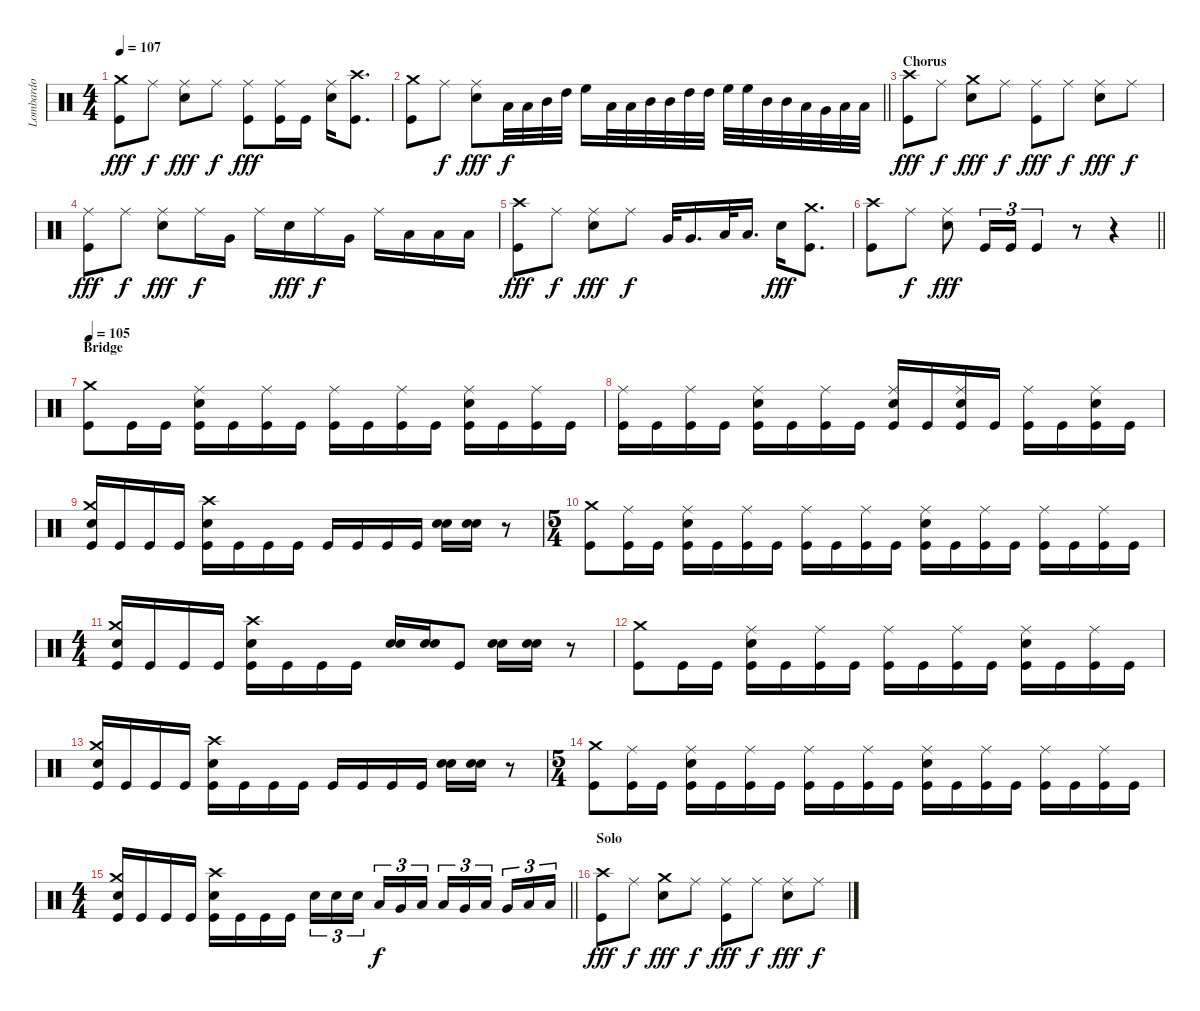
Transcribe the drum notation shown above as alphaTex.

\track ("Lombardo" "Lombardo") {instrument percussion}
\staff {score}
\articulation defaults
\ts (4 4)
\tempo 107
\clef neutral
\ks c
("Kick (hit)" "Crash medium (hit)").8{dy fff} "Ride (middle)".8{dy f} ("Electric Snare (hit)" "Ride (middle)").8{dy fff} "Ride (middle)".8{dy f} ("Kick (hit)" "Ride (middle)").8{dy fff} ("Kick (hit)" "Ride (middle)").16 "Kick (hit)".16 ("Electric Snare (hit)" "Ride (middle)").16 ("Kick (hit)" "Crash high (hit)").8{d} |
\barLineRight lightlight
("Kick (hit)" "Crash medium (hit)").8 "Ride (middle)".8{dy f} ("Electric Snare (hit)" "Ride (middle)").8{dy fff} "Low Tom (hit)".32{dy f} "Low Tom (hit)".32 "Mid Tom (hit)".32 "High Tom (hit)".32 "High Floor Tom (hit)".16 "Low Tom (hit)".32 "Low Tom (hit)".32 "Mid Tom (hit)".32 "Mid Tom (hit)".32 "High Tom (hit)".32 "High Tom (hit)".32 "High Floor Tom (hit)".32 "High Floor Tom (hit)".32 "Mid Tom (hit)".32 "Mid Tom (hit)".32 "Low Tom (hit)".32 "Very Low Tom (hit)".32 "Low Floor Tom (hit)".32 "Low Floor Tom (hit)".32 |
\section ("" "Chorus")
("Kick (hit)" "Crash high (hit)").8{dy fff} "Ride (middle)".8{dy f} ("Electric Snare (hit)" "Crash medium (hit)").8{dy fff} "Ride (middle)".8{dy f} ("Kick (hit)" "Ride (middle)").8{dy fff} "Ride (middle)".8{dy f} ("Electric Snare (hit)" "Ride (middle)").8{dy fff} "Ride (middle)".8{dy f} |
("Kick (hit)" "Ride (middle)").8{dy fff} "Ride (middle)".8{dy f} ("Electric Snare (hit)" "Ride (middle)").8{dy fff} "Ride (middle)".16{dy f} "Very Low Tom (hit)".16 "Ride (middle)".16 "Electric Snare (hit)".16{dy fff} "Ride (middle)".16{dy f} "Very Low Tom (hit)".16 "Ride (middle)".16 "Low Floor Tom (hit)".16 "Low Floor Tom (hit)".16 "Low Floor Tom (hit)".16 |
("Kick (hit)" "Crash high (hit)").8{dy fff} "Ride (middle)".8{dy f} ("Electric Snare (hit)" "Ride (middle)").8{dy fff} "Ride (middle)".8{dy f} "Very Low Tom (hit)".32 "Very Low Tom (hit)".16{d} "Low Floor Tom (hit)".32 "Low Floor Tom (hit)".16{d} "Electric Snare (hit)".16{dy fff} ("Kick (hit)" "Crash medium (hit)").8{d} |
\barLineRight lightlight
("Kick (hit)" "Crash high (hit)").8 "Ride (middle)".8{dy f} ("Electric Snare (hit)" "Ride (middle)").8{dy fff} "Kick (hit)".16{tu (3 2)} "Kick (hit)".16{tu (3 2)} "Kick (hit)".4{tu (3 2)} r.8 r.4 |
\section ("" "Bridge")
\tempo 105
("Crash medium (hit)" "Kick (hit)").8 "Kick (hit)".16 "Kick (hit)".16 ("Electric Snare (hit)" "Kick (hit)" "Ride (middle)").16 "Kick (hit)".16 ("Kick (hit)" "Ride (middle)").16 "Kick (hit)".16 ("Kick (hit)" "Ride (middle)").16 "Kick (hit)".16 ("Kick (hit)" "Ride (middle)").16 "Kick (hit)".16 ("Electric Snare (hit)" "Kick (hit)" "Ride (middle)").16 "Kick (hit)".16 ("Kick (hit)" "Ride (middle)").16 "Kick (hit)".16 |
("Kick (hit)" "Ride (middle)").16 "Kick (hit)".16 ("Kick (hit)" "Ride (middle)").16 "Kick (hit)".16 ("Electric Snare (hit)" "Kick (hit)" "Ride (middle)").16 "Kick (hit)".16 ("Kick (hit)" "Ride (middle)").16 "Kick (hit)".16 ("Electric Snare (hit)" "Kick (hit)" "Ride (middle)").16 "Kick (hit)".16 ("Electric Snare (hit)" "Kick (hit)" "Ride (middle)").16 "Kick (hit)".16 ("Kick (hit)" "Ride (middle)").16 "Kick (hit)".16 ("Electric Snare (hit)" "Kick (hit)" "Ride (middle)").16 "Kick (hit)".16 |
("Kick (hit)" "Crash medium (hit)" "Electric Snare (hit)").16 "Kick (hit)".16 "Kick (hit)".16 "Kick (hit)".16 ("Kick (hit)" "Crash high (hit)" "Electric Snare (hit)").16 "Kick (hit)".16 "Kick (hit)".16 "Kick (hit)".16 "Kick (hit)".16 "Kick (hit)".16 "Kick (hit)".16 "Kick (hit)".16 ("Electric Snare (hit)" "Electric Snare (hit)").16 ("Electric Snare (hit)" "Electric Snare (hit)").16 r.8 |
\ts (5 4)
("Crash medium (hit)" "Kick (hit)").8 ("Kick (hit)" "Ride (middle)").16 "Kick (hit)".16 ("Kick (hit)" "Electric Snare (hit)" "Ride (middle)").16 "Kick (hit)".16 ("Kick (hit)" "Ride (middle)").16 "Kick (hit)".16 ("Kick (hit)" "Ride (middle)").16 "Kick (hit)".16 ("Kick (hit)" "Ride (middle)").16 "Kick (hit)".16 ("Kick (hit)" "Electric Snare (hit)" "Ride (middle)").16 "Kick (hit)".16 ("Kick (hit)" "Ride (middle)").16 "Kick (hit)".16 ("Kick (hit)" "Ride (middle)").16 "Kick (hit)".16 ("Kick (hit)" "Ride (middle)").16 "Kick (hit)".16 |
\ts (4 4)
("Kick (hit)" "Crash medium (hit)" "Electric Snare (hit)").16 "Kick (hit)".16 "Kick (hit)".16 "Kick (hit)".16 ("Kick (hit)" "Crash high (hit)" "Electric Snare (hit)").16 "Kick (hit)".16 "Kick (hit)".16 "Kick (hit)".16 ("Electric Snare (hit)" "Electric Snare (hit)").16 ("Electric Snare (hit)" "Electric Snare (hit)").16 "Kick (hit)".8 ("Electric Snare (hit)" "Electric Snare (hit)").16 ("Electric Snare (hit)" "Electric Snare (hit)").16 r.8 |
("Crash medium (hit)" "Kick (hit)").8 "Kick (hit)".16 "Kick (hit)".16 ("Electric Snare (hit)" "Kick (hit)" "Ride (middle)").16 "Kick (hit)".16 ("Kick (hit)" "Ride (middle)").16 "Kick (hit)".16 ("Kick (hit)" "Ride (middle)").16 "Kick (hit)".16 ("Kick (hit)" "Ride (middle)").16 "Kick (hit)".16 ("Electric Snare (hit)" "Kick (hit)" "Ride (middle)").16 "Kick (hit)".16 ("Kick (hit)" "Ride (middle)").16 "Kick (hit)".16 |
("Kick (hit)" "Crash medium (hit)" "Electric Snare (hit)").16 "Kick (hit)".16 "Kick (hit)".16 "Kick (hit)".16 ("Kick (hit)" "Crash high (hit)" "Electric Snare (hit)").16 "Kick (hit)".16 "Kick (hit)".16 "Kick (hit)".16 "Kick (hit)".16 "Kick (hit)".16 "Kick (hit)".16 "Kick (hit)".16 ("Electric Snare (hit)" "Electric Snare (hit)").16 ("Electric Snare (hit)" "Electric Snare (hit)").16 r.8 |
\ts (5 4)
("Crash medium (hit)" "Kick (hit)").8 ("Kick (hit)" "Ride (middle)").16 "Kick (hit)".16 ("Kick (hit)" "Electric Snare (hit)" "Ride (middle)").16 "Kick (hit)".16 ("Kick (hit)" "Ride (middle)").16 "Kick (hit)".16 ("Kick (hit)" "Ride (middle)").16 "Kick (hit)".16 ("Kick (hit)" "Ride (middle)").16 "Kick (hit)".16 ("Kick (hit)" "Electric Snare (hit)" "Ride (middle)").16 "Kick (hit)".16 ("Kick (hit)" "Ride (middle)").16 "Kick (hit)".16 ("Kick (hit)" "Ride (middle)").16 "Kick (hit)".16 ("Kick (hit)" "Ride (middle)").16 "Kick (hit)".16 |
\ts (4 4)
\barLineRight lightlight
("Kick (hit)" "Crash medium (hit)" "Electric Snare (hit)").16 "Kick (hit)".16 "Kick (hit)".16 "Kick (hit)".16 ("Kick (hit)" "Crash high (hit)" "Electric Snare (hit)").16 "Kick (hit)".16 "Kick (hit)".16 "Kick (hit)".16 "Electric Snare (hit)".16{tu (3 2)} "Electric Snare (hit)".16{tu (3 2)} "Electric Snare (hit)".16{tu (3 2)} "Low Tom (hit)".16{tu (3 2) dy f} "Very Low Tom (hit)".16{tu (3 2)} "Low Floor Tom (hit)".16{tu (3 2)} "Low Tom (hit)".16{tu (3 2)} "Very Low Tom (hit)".16{tu (3 2)} "Low Floor Tom (hit)".16{tu (3 2)} "Very Low Tom (hit)".16{tu (3 2)} "Low Floor Tom (hit)".16{tu (3 2)} "Low Floor Tom (hit)".16{tu (3 2)} |
\section ("" "Solo")
("Crash high (hit)" "Kick (hit)").8{dy fff} "Ride (middle)".8{dy f} ("Crash medium (hit)" "Electric Snare (hit)").8{dy fff} "Ride (middle)".8{dy f} ("Ride (middle)" "Kick (hit)").8{dy fff} "Ride (middle)".8{dy f} ("Ride (middle)" "Electric Snare (hit)").8{dy fff} "Ride (middle)".8{dy f}
